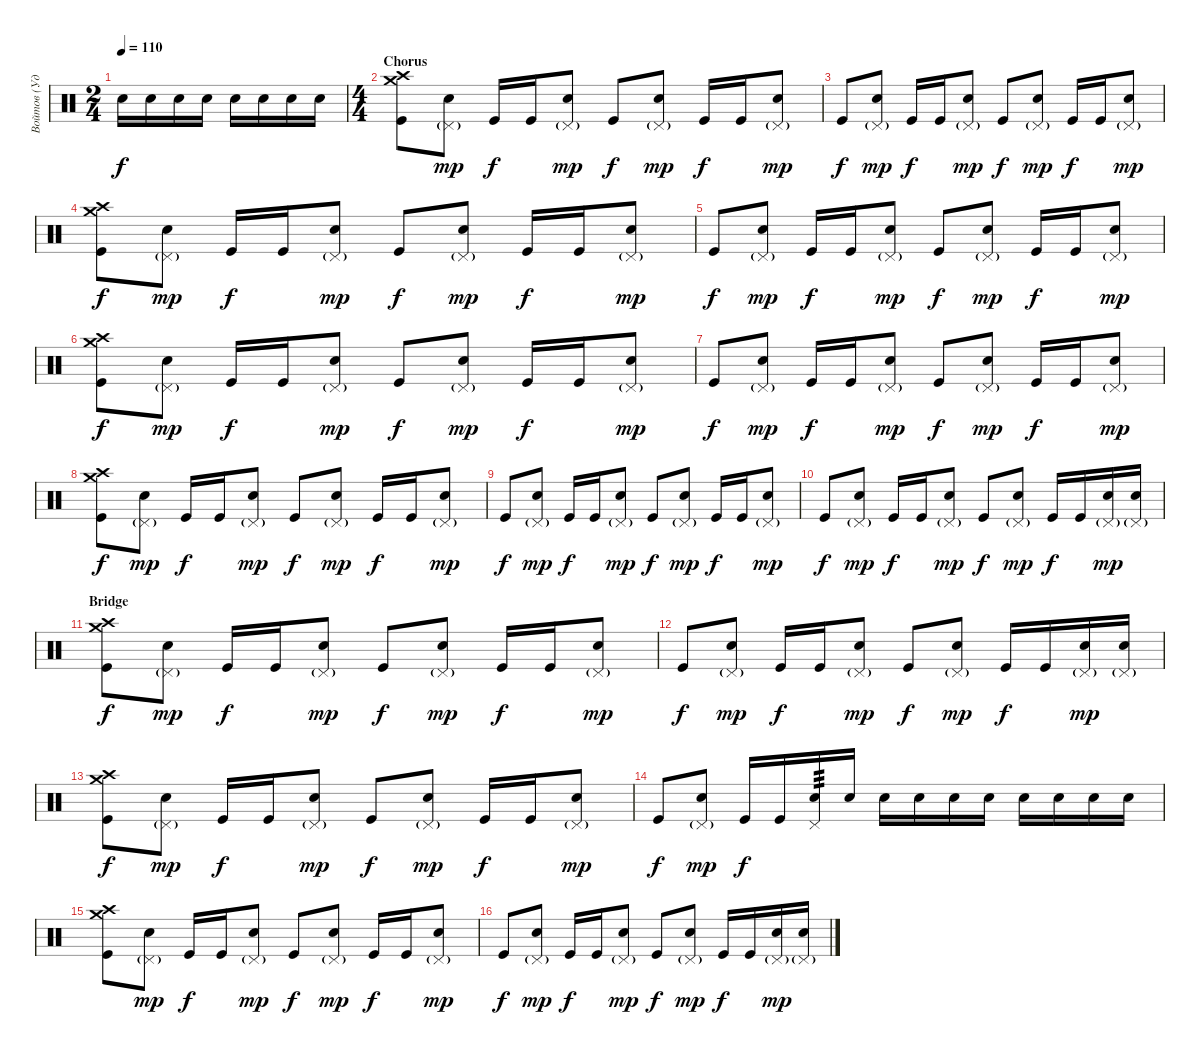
\track ("Войтов (Ударные)" "Войтов (Уд") {instrument percussion}
\staff {score}
\articulation defaults
\ts (2 4)
\tempo 110
\clef neutral
\ks c "Electric Snare (hit)".16{dy f} "Electric Snare (hit)".16 "Electric Snare (hit)".16 "Electric Snare (hit)".16 "Electric Snare (hit)".16 "Electric Snare (hit)".16 "Electric Snare (hit)".16 "Electric Snare (hit)".16
|
\ts (4 4)
\section ("" "Chorus")
("Crash medium (hit)" "Crash high (hit)" "Kick (hit)").8 ("Pedal Hi-Hat (hit)"{g} "Electric Snare (hit)").8{dy mp} "Kick (hit)".16{dy f} "Kick (hit)".16 ("Pedal Hi-Hat (hit)"{g} "Electric Snare (hit)").8{dy mp} "Kick (hit)".8{dy f} ("Pedal Hi-Hat (hit)"{g} "Electric Snare (hit)").8{dy mp} "Kick (hit)".16{dy f} "Kick (hit)".16 ("Pedal Hi-Hat (hit)"{g} "Electric Snare (hit)").8{dy mp} |
"Kick (hit)".8{dy f} ("Pedal Hi-Hat (hit)"{g} "Electric Snare (hit)").8{dy mp} "Kick (hit)".16{dy f} "Kick (hit)".16 ("Pedal Hi-Hat (hit)"{g} "Electric Snare (hit)").8{dy mp} "Kick (hit)".8{dy f} ("Pedal Hi-Hat (hit)"{g} "Electric Snare (hit)").8{dy mp} "Kick (hit)".16{dy f} "Kick (hit)".16 ("Pedal Hi-Hat (hit)"{g} "Electric Snare (hit)").8{dy mp} |
("Crash medium (hit)" "Crash high (hit)" "Kick (hit)").8{dy f} ("Pedal Hi-Hat (hit)"{g} "Electric Snare (hit)").8{dy mp} "Kick (hit)".16{dy f} "Kick (hit)".16 ("Pedal Hi-Hat (hit)"{g} "Electric Snare (hit)").8{dy mp} "Kick (hit)".8{dy f} ("Pedal Hi-Hat (hit)"{g} "Electric Snare (hit)").8{dy mp} "Kick (hit)".16{dy f} "Kick (hit)".16 ("Pedal Hi-Hat (hit)"{g} "Electric Snare (hit)").8{dy mp} |
"Kick (hit)".8{dy f} ("Pedal Hi-Hat (hit)"{g} "Electric Snare (hit)").8{dy mp} "Kick (hit)".16{dy f} "Kick (hit)".16 ("Pedal Hi-Hat (hit)"{g} "Electric Snare (hit)").8{dy mp} "Kick (hit)".8{dy f} ("Pedal Hi-Hat (hit)"{g} "Electric Snare (hit)").8{dy mp} "Kick (hit)".16{dy f} "Kick (hit)".16 ("Pedal Hi-Hat (hit)"{g} "Electric Snare (hit)").8{dy mp} |
("Crash medium (hit)" "Crash high (hit)" "Kick (hit)").8{dy f} ("Pedal Hi-Hat (hit)"{g} "Electric Snare (hit)").8{dy mp} "Kick (hit)".16{dy f} "Kick (hit)".16 ("Pedal Hi-Hat (hit)"{g} "Electric Snare (hit)").8{dy mp} "Kick (hit)".8{dy f} ("Pedal Hi-Hat (hit)"{g} "Electric Snare (hit)").8{dy mp} "Kick (hit)".16{dy f} "Kick (hit)".16 ("Pedal Hi-Hat (hit)"{g} "Electric Snare (hit)").8{dy mp} |
"Kick (hit)".8{dy f} ("Pedal Hi-Hat (hit)"{g} "Electric Snare (hit)").8{dy mp} "Kick (hit)".16{dy f} "Kick (hit)".16 ("Pedal Hi-Hat (hit)"{g} "Electric Snare (hit)").8{dy mp} "Kick (hit)".8{dy f} ("Pedal Hi-Hat (hit)"{g} "Electric Snare (hit)").8{dy mp} "Kick (hit)".16{dy f} "Kick (hit)".16 ("Pedal Hi-Hat (hit)"{g} "Electric Snare (hit)").8{dy mp} |
("Crash medium (hit)" "Crash high (hit)" "Kick (hit)").8{dy f} ("Pedal Hi-Hat (hit)"{g} "Electric Snare (hit)").8{dy mp} "Kick (hit)".16{dy f} "Kick (hit)".16 ("Pedal Hi-Hat (hit)"{g} "Electric Snare (hit)").8{dy mp} "Kick (hit)".8{dy f} ("Pedal Hi-Hat (hit)"{g} "Electric Snare (hit)").8{dy mp} "Kick (hit)".16{dy f} "Kick (hit)".16 ("Pedal Hi-Hat (hit)"{g} "Electric Snare (hit)").8{dy mp} |
"Kick (hit)".8{dy f} ("Pedal Hi-Hat (hit)"{g} "Electric Snare (hit)").8{dy mp} "Kick (hit)".16{dy f} "Kick (hit)".16 ("Pedal Hi-Hat (hit)"{g} "Electric Snare (hit)").8{dy mp} "Kick (hit)".8{dy f} ("Pedal Hi-Hat (hit)"{g} "Electric Snare (hit)").8{dy mp} "Kick (hit)".16{dy f} "Kick (hit)".16 ("Pedal Hi-Hat (hit)"{g} "Electric Snare (hit)").8{dy mp} |
"Kick (hit)".8{dy f} ("Pedal Hi-Hat (hit)"{g} "Electric Snare (hit)").8{dy mp} "Kick (hit)".16{dy f} "Kick (hit)".16 ("Pedal Hi-Hat (hit)"{g} "Electric Snare (hit)").8{dy mp} "Kick (hit)".8{dy f} ("Pedal Hi-Hat (hit)"{g} "Electric Snare (hit)").8{dy mp} "Kick (hit)".16{dy f} "Kick (hit)".16 ("Pedal Hi-Hat (hit)"{g} "Electric Snare (hit)").16{dy mp} ("Pedal Hi-Hat (hit)"{g} "Electric Snare (hit)").16 |
\section ("" "Bridge")
("Crash medium (hit)" "Crash high (hit)" "Kick (hit)").8{dy f} ("Pedal Hi-Hat (hit)"{g} "Electric Snare (hit)").8{dy mp} "Kick (hit)".16{dy f} "Kick (hit)".16 ("Pedal Hi-Hat (hit)"{g} "Electric Snare (hit)").8{dy mp} "Kick (hit)".8{dy f} ("Pedal Hi-Hat (hit)"{g} "Electric Snare (hit)").8{dy mp} "Kick (hit)".16{dy f} "Kick (hit)".16 ("Pedal Hi-Hat (hit)"{g} "Electric Snare (hit)").8{dy mp} |
"Kick (hit)".8{dy f} ("Pedal Hi-Hat (hit)"{g} "Electric Snare (hit)").8{dy mp} "Kick (hit)".16{dy f} "Kick (hit)".16 ("Pedal Hi-Hat (hit)"{g} "Electric Snare (hit)").8{dy mp} "Kick (hit)".8{dy f} ("Pedal Hi-Hat (hit)"{g} "Electric Snare (hit)").8{dy mp} "Kick (hit)".16{dy f} "Kick (hit)".16 ("Pedal Hi-Hat (hit)"{g} "Electric Snare (hit)").16{dy mp} ("Pedal Hi-Hat (hit)"{g} "Electric Snare (hit)").16 |
("Crash medium (hit)" "Crash high (hit)" "Kick (hit)").8{dy f} ("Pedal Hi-Hat (hit)"{g} "Electric Snare (hit)").8{dy mp} "Kick (hit)".16{dy f} "Kick (hit)".16 ("Pedal Hi-Hat (hit)"{g} "Electric Snare (hit)").8{dy mp} "Kick (hit)".8{dy f} ("Pedal Hi-Hat (hit)"{g} "Electric Snare (hit)").8{dy mp} "Kick (hit)".16{dy f} "Kick (hit)".16 ("Pedal Hi-Hat (hit)"{g} "Electric Snare (hit)").8{dy mp} |
"Kick (hit)".8{dy f} ("Pedal Hi-Hat (hit)"{g} "Electric Snare (hit)").8{dy mp} "Kick (hit)".16{dy f} "Kick (hit)".16 ("Pedal Hi-Hat (hit)" "Electric Snare (hit)").16{tp 3} "Electric Snare (hit)".16 "Electric Snare (hit)".16 "Electric Snare (hit)".16 "Electric Snare (hit)".16 "Electric Snare (hit)".16 "Electric Snare (hit)".16 "Electric Snare (hit)".16 "Electric Snare (hit)".16 "Electric Snare (hit)".16 |
("Crash medium (hit)" "Crash high (hit)" "Kick (hit)").8 ("Pedal Hi-Hat (hit)"{g} "Electric Snare (hit)").8{dy mp} "Kick (hit)".16{dy f} "Kick (hit)".16 ("Pedal Hi-Hat (hit)"{g} "Electric Snare (hit)").8{dy mp} "Kick (hit)".8{dy f} ("Pedal Hi-Hat (hit)"{g} "Electric Snare (hit)").8{dy mp} "Kick (hit)".16{dy f} "Kick (hit)".16 ("Pedal Hi-Hat (hit)"{g} "Electric Snare (hit)").8{dy mp} |
"Kick (hit)".8{dy f} ("Pedal Hi-Hat (hit)"{g} "Electric Snare (hit)").8{dy mp} "Kick (hit)".16{dy f} "Kick (hit)".16 ("Pedal Hi-Hat (hit)"{g} "Electric Snare (hit)").8{dy mp} "Kick (hit)".8{dy f} ("Pedal Hi-Hat (hit)"{g} "Electric Snare (hit)").8{dy mp} "Kick (hit)".16{dy f} "Kick (hit)".16 ("Pedal Hi-Hat (hit)"{g} "Electric Snare (hit)").16{dy mp} ("Pedal Hi-Hat (hit)"{g} "Electric Snare (hit)").16
